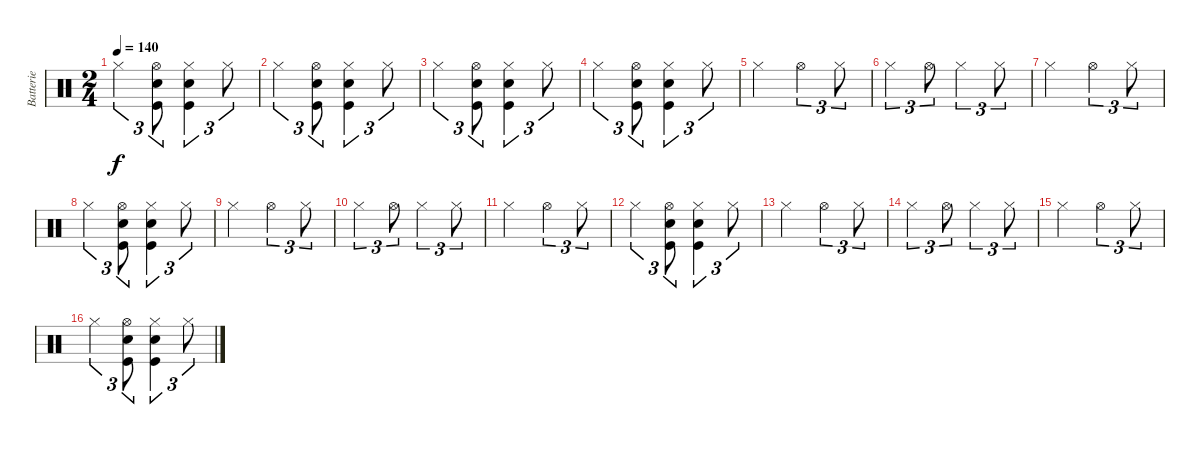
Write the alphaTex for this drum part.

\track ("Batterie" "Batterie") {instrument percussion}
\staff {score}
\articulation defaults
\ts (2 4)
\tempo 140
\clef neutral
\ks c "Hi-Hat (closed)".4{tu (3 2) dy f}
("Hi-Hat (open)" "Snare (hit) 2" "Kick (hit)").8{tu (3 2)} ("Hi-Hat (closed)" "Snare (hit) 2" "Kick (hit)").4{tu (3 2)} "Hi-Hat (closed)".8{tu (3 2)} |
"Hi-Hat (closed)".4{tu (3 2)} ("Hi-Hat (open)" "Snare (hit) 2" "Kick (hit)").8{tu (3 2)} ("Hi-Hat (closed)" "Snare (hit) 2" "Kick (hit)").4{tu (3 2)} "Hi-Hat (closed)".8{tu (3 2)} |
"Hi-Hat (closed)".4{tu (3 2)} ("Hi-Hat (open)" "Snare (hit) 2" "Kick (hit)").8{tu (3 2)} ("Hi-Hat (closed)" "Snare (hit) 2" "Kick (hit)").4{tu (3 2)} "Hi-Hat (closed)".8{tu (3 2)} |
"Hi-Hat (closed)".4{tu (3 2)} ("Hi-Hat (open)" "Snare (hit) 2" "Kick (hit)").8{tu (3 2)} ("Hi-Hat (closed)" "Snare (hit) 2" "Kick (hit)").4{tu (3 2)} "Hi-Hat (closed)".8{tu (3 2)} |
"Hi-Hat (closed)".4 "Hi-Hat (open)".4{tu (3 2)} "Hi-Hat (closed)".8{tu (3 2)} |
"Hi-Hat (closed)".4{tu (3 2)} "Hi-Hat (open)".8{tu (3 2)} "Hi-Hat (closed)".4{tu (3 2)} "Hi-Hat (closed)".8{tu (3 2)} |
"Hi-Hat (closed)".4 "Hi-Hat (open)".4{tu (3 2)} "Hi-Hat (closed)".8{tu (3 2)} |
"Hi-Hat (closed)".4{tu (3 2)} ("Hi-Hat (open)" "Snare (hit) 2" "Kick (hit)").8{tu (3 2)} ("Hi-Hat (closed)" "Snare (hit) 2" "Kick (hit)").4{tu (3 2)} "Hi-Hat (closed)".8{tu (3 2)} |
"Hi-Hat (closed)".4 "Hi-Hat (open)".4{tu (3 2)} "Hi-Hat (closed)".8{tu (3 2)} |
"Hi-Hat (closed)".4{tu (3 2)} "Hi-Hat (open)".8{tu (3 2)} "Hi-Hat (closed)".4{tu (3 2)} "Hi-Hat (closed)".8{tu (3 2)} |
"Hi-Hat (closed)".4 "Hi-Hat (open)".4{tu (3 2)} "Hi-Hat (closed)".8{tu (3 2)} |
"Hi-Hat (closed)".4{tu (3 2)} ("Hi-Hat (open)" "Snare (hit) 2" "Kick (hit)").8{tu (3 2)} ("Hi-Hat (closed)" "Snare (hit) 2" "Kick (hit)").4{tu (3 2)} "Hi-Hat (closed)".8{tu (3 2)} |
"Hi-Hat (closed)".4 "Hi-Hat (open)".4{tu (3 2)} "Hi-Hat (closed)".8{tu (3 2)} |
"Hi-Hat (closed)".4{tu (3 2)} "Hi-Hat (open)".8{tu (3 2)} "Hi-Hat (closed)".4{tu (3 2)} "Hi-Hat (closed)".8{tu (3 2)} |
"Hi-Hat (closed)".4 "Hi-Hat (open)".4{tu (3 2)} "Hi-Hat (closed)".8{tu (3 2)} |
"Hi-Hat (closed)".4{tu (3 2)} ("Hi-Hat (open)" "Snare (hit) 2" "Kick (hit)").8{tu (3 2)} ("Hi-Hat (closed)" "Snare (hit) 2" "Kick (hit)").4{tu (3 2)} "Hi-Hat (closed)".8{tu (3 2)}
